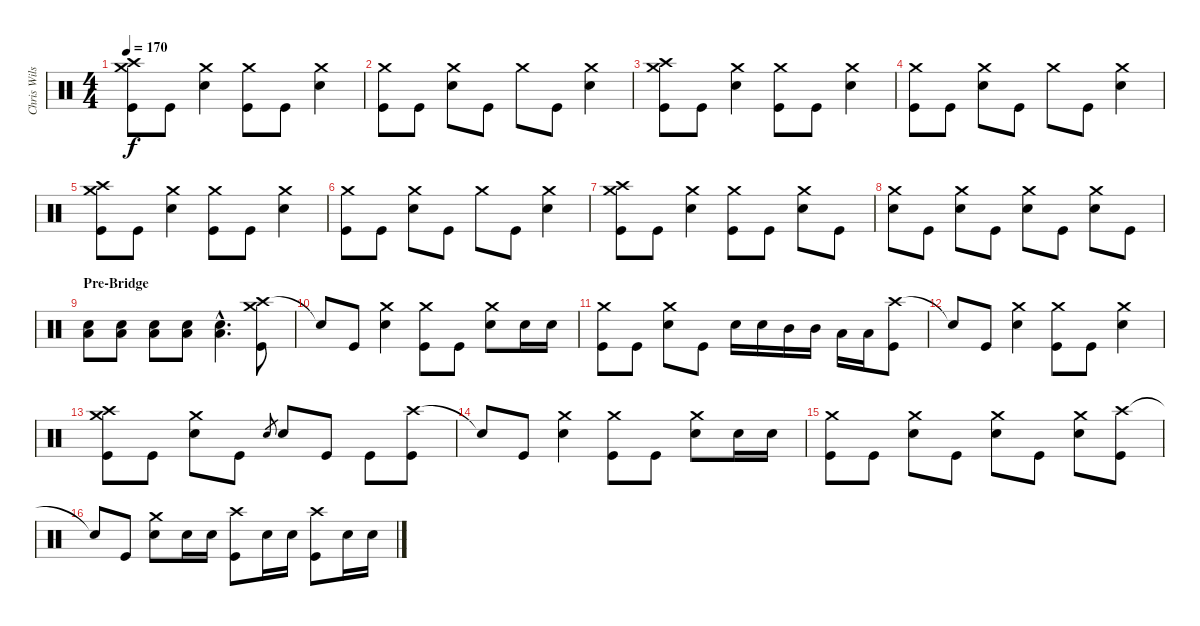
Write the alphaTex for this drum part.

\track ("Chris Wilson" "Chris Wils") {instrument percussion}
\staff {score}
\articulation defaults
\ts (4 4)
\tempo 170
\clef neutral
\ks c
("Crash high (hit)" "Crash medium (hit)" "Kick (hit)").8{dy f} "Kick (hit)".8 ("Crash medium (hit)" "Electric Snare (hit)").4 ("Crash medium (hit)" "Kick (hit)").8 "Kick (hit)".8 ("Crash medium (hit)" "Electric Snare (hit)").4 |
("Crash medium (hit)" "Kick (hit)").8 "Kick (hit)".8 ("Crash medium (hit)" "Electric Snare (hit)").8 "Kick (hit)".8 "Crash medium (hit)".8 "Kick (hit)".8 ("Crash medium (hit)" "Electric Snare (hit)").4 |
("Crash high (hit)" "Crash medium (hit)" "Kick (hit)").8 "Kick (hit)".8 ("Crash medium (hit)" "Electric Snare (hit)").4 ("Crash medium (hit)" "Kick (hit)").8 "Kick (hit)".8 ("Crash medium (hit)" "Electric Snare (hit)").4 |
("Crash medium (hit)" "Kick (hit)").8 "Kick (hit)".8 ("Crash medium (hit)" "Electric Snare (hit)").8 "Kick (hit)".8 "Crash medium (hit)".8 "Kick (hit)".8 ("Crash medium (hit)" "Electric Snare (hit)").4 |
("Crash high (hit)" "Crash medium (hit)" "Kick (hit)").8 "Kick (hit)".8 ("Crash medium (hit)" "Electric Snare (hit)").4 ("Crash medium (hit)" "Kick (hit)").8 "Kick (hit)".8 ("Crash medium (hit)" "Electric Snare (hit)").4 |
("Crash medium (hit)" "Kick (hit)").8 "Kick (hit)".8 ("Crash medium (hit)" "Electric Snare (hit)").8 "Kick (hit)".8 "Crash medium (hit)".8 "Kick (hit)".8 ("Crash medium (hit)" "Electric Snare (hit)").4 |
("Crash high (hit)" "Crash medium (hit)" "Kick (hit)").8 "Kick (hit)".8 ("Crash medium (hit)" "Electric Snare (hit)").4 ("Crash medium (hit)" "Kick (hit)").8 "Kick (hit)".8 ("Crash medium (hit)" "Electric Snare (hit)").8 "Kick (hit)".8 |
("Crash medium (hit)" "Electric Snare (hit)").8 "Kick (hit)".8 ("Crash medium (hit)" "Electric Snare (hit)").8 "Kick (hit)".8 ("Crash medium (hit)" "Electric Snare (hit)").8 "Kick (hit)".8 ("Crash medium (hit)" "Electric Snare (hit)").8 "Kick (hit)".8 |
\section ("" "Pre-Bridge")
("Low Tom (hit)" "Electric Snare (hit)").8 ("Low Tom (hit)" "Electric Snare (hit)").8 ("Low Tom (hit)" "Electric Snare (hit)").8 ("Low Tom (hit)" "Electric Snare (hit)").8 ("Low Tom (hit)"{hac} "Electric Snare (hit)"{hac}).4{d} ("Crash high (hit)" "Crash medium (hit)" "Kick (hit)").8 |
"Snare (hit)"{t}.8 "Kick (hit)".8 ("Crash medium (hit)" "Electric Snare (hit)").4 ("Crash medium (hit)" "Kick (hit)").8 "Kick (hit)".8 ("Crash medium (hit)" "Electric Snare (hit)").8 "Electric Snare (hit)".16 "Electric Snare (hit)".16 |
("Crash medium (hit)" "Kick (hit)").8 "Kick (hit)".8 ("Crash medium (hit)" "Electric Snare (hit)").8 "Kick (hit)".8 "Electric Snare (hit)".16 "Electric Snare (hit)".16 "Mid Tom (hit)".16 "Mid Tom (hit)".16 "Low Tom (hit)".16 "Low Tom (hit)".16 ("Crash high (hit)" "Kick (hit)").8 |
"Snare (hit)"{t}.8 "Kick (hit)".8 ("Crash medium (hit)" "Electric Snare (hit)").4 ("Crash medium (hit)" "Kick (hit)").8 "Kick (hit)".8 ("Crash medium (hit)" "Electric Snare (hit)").4 |
("Crash medium (hit)" "Crash high (hit)" "Kick (hit)").8 "Kick (hit)".8 ("Crash medium (hit)" "Electric Snare (hit)").8 "Kick (hit)".8 "Electric Snare (hit)".8{gr} "Electric Snare (hit)".8 "Kick (hit)".8 "Kick (hit)".8 ("Crash high (hit)" "Kick (hit)").8 |
"Snare (hit)"{t}.8 "Kick (hit)".8 ("Crash medium (hit)" "Electric Snare (hit)").4 ("Crash medium (hit)" "Kick (hit)").8 "Kick (hit)".8 ("Crash medium (hit)" "Electric Snare (hit)").8 "Electric Snare (hit)".16 "Electric Snare (hit)".16 |
("Crash medium (hit)" "Kick (hit)").8 "Kick (hit)".8 ("Crash medium (hit)" "Electric Snare (hit)").8 "Kick (hit)".8 ("Crash medium (hit)" "Electric Snare (hit)").8 "Kick (hit)".8 ("Crash medium (hit)" "Electric Snare (hit)").8 ("Crash high (hit)" "Kick (hit)").8 |
"Snare (hit)"{t}.8 "Kick (hit)".8 ("Crash medium (hit)" "Electric Snare (hit)").8 "Electric Snare (hit)".16 "Electric Snare (hit)".16 ("Crash high (hit)" "Kick (hit)").8 "Electric Snare (hit)".16 "Electric Snare (hit)".16 ("Crash high (hit)" "Kick (hit)").8 "Electric Snare (hit)".16 "Electric Snare (hit)".16
